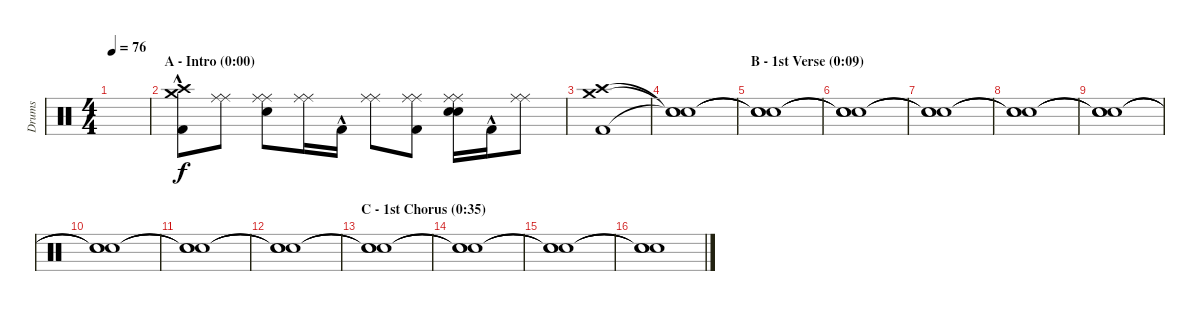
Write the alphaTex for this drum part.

\track ("Drums" "Drums") {instrument percussion}
\staff {score}
\articulation defaults
\ts (4 4)
\tempo 76
\clef neutral
\ks c
|
\section ("" "A - Intro (0:00)")
("Kick (hit) 2"{hac} "Crash high (hit)" "Crash medium (hit)").8 ("Ride (middle)" "Ride (middle)").8 ("Snare (hit) 2" "Ride (middle)" "Ride (middle)").8 ("Ride (middle)" "Ride (middle)").16 "Kick (hit) 2"{hac}.16 ("Ride (middle)" "Ride (middle)").8 ("Kick (hit) 2" "Ride (middle)" "Ride (middle)").8 ("Electric Snare (hit)" "Snare (hit) 2" "Ride (middle)" "Ride (middle)").16 "Kick (hit) 2"{hac}.16 ("Ride (middle)" "Ride (middle)").8 |
("Kick (hit) 2" "Crash high (hit)" "Crash medium (hit)").1 |
("Snare (hit)"{t} "Snare (hit)"{t} "Snare (hit)"{t}).1 |
\section ("" "B - 1st Verse (0:09)")
("Snare (hit)"{t} "Snare (hit)"{t} "Snare (hit)"{t}).1 |
("Snare (hit)"{t} "Snare (hit)"{t} "Snare (hit)"{t}).1 |
("Snare (hit)"{t} "Snare (hit)"{t} "Snare (hit)"{t}).1 |
("Snare (hit)"{t} "Snare (hit)"{t} "Snare (hit)"{t}).1 |
("Snare (hit)"{t} "Snare (hit)"{t} "Snare (hit)"{t}).1 |
("Snare (hit)"{t} "Snare (hit)"{t} "Snare (hit)"{t}).1 |
("Snare (hit)"{t} "Snare (hit)"{t} "Snare (hit)"{t}).1 |
("Snare (hit)"{t} "Snare (hit)"{t} "Snare (hit)"{t}).1 |
\section ("" "C - 1st Chorus (0:35)")
("Snare (hit)"{t} "Snare (hit)"{t} "Snare (hit)"{t}).1 |
("Snare (hit)"{t} "Snare (hit)"{t} "Snare (hit)"{t}).1 |
("Snare (hit)"{t} "Snare (hit)"{t} "Snare (hit)"{t}).1 |
("Snare (hit)"{t} "Snare (hit)"{t} "Snare (hit)"{t}).1
